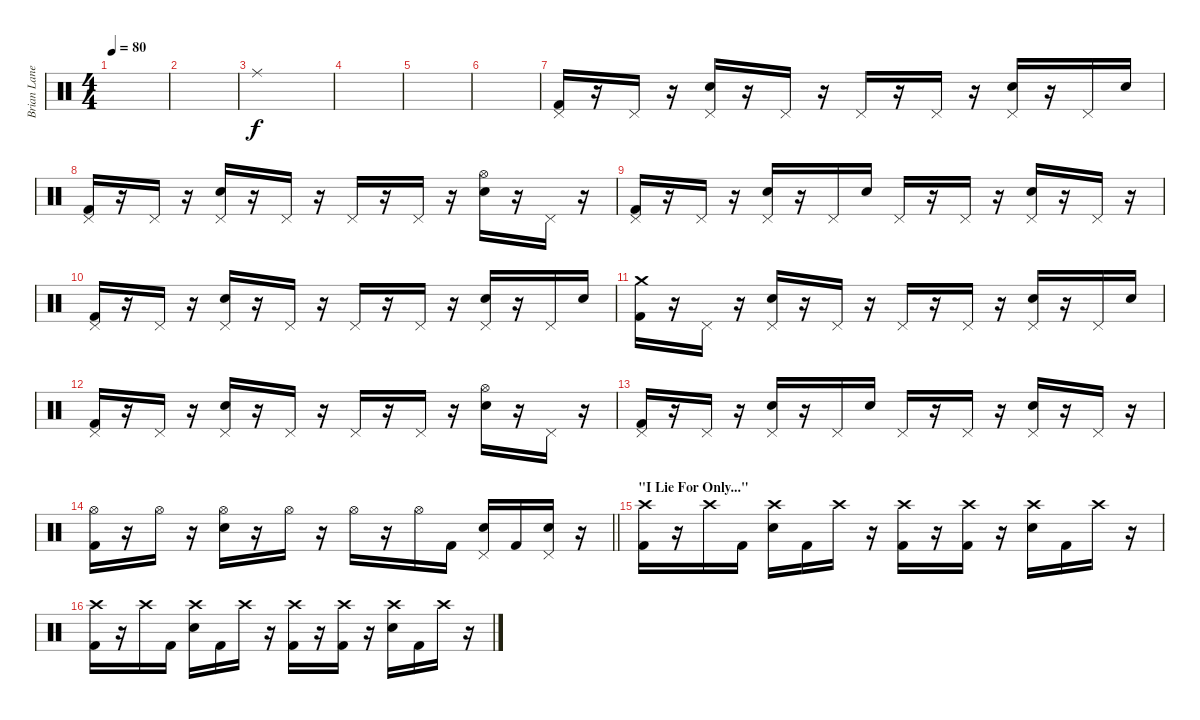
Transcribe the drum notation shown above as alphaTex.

\track ("Brian Lane" "Brian Lane") {instrument percussion}
\staff {score}
\articulation defaults
\ts (4 4)
\tempo 80
\clef neutral
\ks c
|
|
"Ride (middle)".1 |
|
|
|
("Pedal Hi-Hat (hit)" "Kick (hit) 2").16 r.16 "Pedal Hi-Hat (hit)".16 r.16 ("Pedal Hi-Hat (hit)" "Electric Snare (hit)").16 r.16 "Pedal Hi-Hat (hit)".16 r.16 "Pedal Hi-Hat (hit)".16 r.16 "Pedal Hi-Hat (hit)".16 r.16 ("Pedal Hi-Hat (hit)" "Electric Snare (hit)").16 r.16 "Pedal Hi-Hat (hit)".16 "Electric Snare (hit)".16 |
("Pedal Hi-Hat (hit)" "Kick (hit) 2").16 r.16 "Pedal Hi-Hat (hit)".16 r.16 ("Pedal Hi-Hat (hit)" "Electric Snare (hit)").16 r.16 "Pedal Hi-Hat (hit)".16 r.16 "Pedal Hi-Hat (hit)".16 r.16 "Pedal Hi-Hat (hit)".16 r.16 ("Hi-Hat (open)" "Electric Snare (hit)").16 r.16 "Pedal Hi-Hat (hit)".16 r.16 |
("Pedal Hi-Hat (hit)" "Kick (hit) 2").16 r.16 "Pedal Hi-Hat (hit)".16 r.16 ("Pedal Hi-Hat (hit)" "Electric Snare (hit)").16 r.16 "Pedal Hi-Hat (hit)".16 "Electric Snare (hit)".16 "Pedal Hi-Hat (hit)".16 r.16 "Pedal Hi-Hat (hit)".16 r.16 ("Pedal Hi-Hat (hit)" "Electric Snare (hit)").16 r.16 "Pedal Hi-Hat (hit)".16 r.16 |
("Pedal Hi-Hat (hit)" "Kick (hit) 2").16 r.16 "Pedal Hi-Hat (hit)".16 r.16 ("Pedal Hi-Hat (hit)" "Electric Snare (hit)").16 r.16 "Pedal Hi-Hat (hit)".16 r.16 "Pedal Hi-Hat (hit)".16 r.16 "Pedal Hi-Hat (hit)".16 r.16 ("Pedal Hi-Hat (hit)" "Electric Snare (hit)").16 r.16 "Pedal Hi-Hat (hit)".16 "Electric Snare (hit)".16 |
("Crash medium (hit)" "Kick (hit) 2").16 r.16 "Pedal Hi-Hat (hit)".16 r.16 ("Pedal Hi-Hat (hit)" "Electric Snare (hit)").16 r.16 "Pedal Hi-Hat (hit)".16 r.16 "Pedal Hi-Hat (hit)".16 r.16 "Pedal Hi-Hat (hit)".16 r.16 ("Pedal Hi-Hat (hit)" "Electric Snare (hit)").16 r.16 "Pedal Hi-Hat (hit)".16 "Electric Snare (hit)".16 |
("Pedal Hi-Hat (hit)" "Kick (hit) 2").16 r.16 "Pedal Hi-Hat (hit)".16 r.16 ("Pedal Hi-Hat (hit)" "Electric Snare (hit)").16 r.16 "Pedal Hi-Hat (hit)".16 r.16 "Pedal Hi-Hat (hit)".16 r.16 "Pedal Hi-Hat (hit)".16 r.16 ("Hi-Hat (open)" "Electric Snare (hit)").16 r.16 "Pedal Hi-Hat (hit)".16 r.16 |
("Pedal Hi-Hat (hit)" "Kick (hit) 2").16 r.16 "Pedal Hi-Hat (hit)".16 r.16 ("Pedal Hi-Hat (hit)" "Electric Snare (hit)").16 r.16 "Pedal Hi-Hat (hit)".16 "Electric Snare (hit)".16 "Pedal Hi-Hat (hit)".16 r.16 "Pedal Hi-Hat (hit)".16 r.16 ("Pedal Hi-Hat (hit)" "Electric Snare (hit)").16 r.16 "Pedal Hi-Hat (hit)".16 r.16 |
\barLineRight lightlight
("Hi-Hat (open)" "Kick (hit) 2").16 r.16 "Hi-Hat (open)".16 r.16 ("Hi-Hat (open)" "Electric Snare (hit)").16 r.16 "Hi-Hat (open)".16 r.16 "Hi-Hat (open)".16 r.16 "Hi-Hat (open)".16 "Kick (hit) 2".16 ("Pedal Hi-Hat (hit)" "Electric Snare (hit)").16 "Kick (hit) 2".16 ("Pedal Hi-Hat (hit)" "Electric Snare (hit)").16 r.16 |
\section ("" "\"I Lie For Only...\" ")
("Crash high (hit)" "Kick (hit) 2").16 r.16 "Crash high (hit)".16 "Kick (hit) 2".16 ("Crash high (hit)" "Electric Snare (hit)").16 "Kick (hit) 2".16 "Crash high (hit)".16 r.16 ("Crash high (hit)" "Kick (hit) 2").16 r.16 ("Crash high (hit)" "Kick (hit) 2").16 r.16 ("Crash high (hit)" "Electric Snare (hit)").16 "Kick (hit) 2".16 "Crash high (hit)".16 r.16 |
("Crash high (hit)" "Kick (hit) 2").16 r.16 "Crash high (hit)".16 "Kick (hit) 2".16 ("Crash high (hit)" "Electric Snare (hit)").16 "Kick (hit) 2".16 "Crash high (hit)".16 r.16 ("Crash high (hit)" "Kick (hit) 2").16 r.16 ("Crash high (hit)" "Kick (hit) 2").16 r.16 ("Crash high (hit)" "Electric Snare (hit)").16 "Kick (hit) 2".16 "Crash high (hit)".16 r.16
